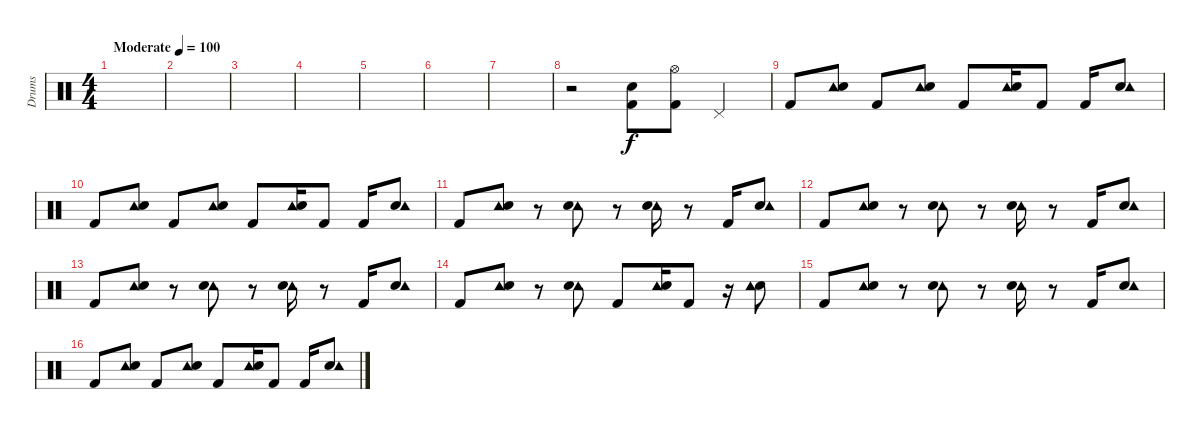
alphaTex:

\track ("Drums" "Drums") {instrument percussion}
\staff {score}
\articulation defaults
\ts (4 4)
\tempo (100 "Moderate")
\clef neutral
\ks c
|
|
|
|
|
|
|
r.2 ("Kick (hit) 2" "Electric Snare (hit)").8 ("Kick (hit) 2" "Hi-Hat (open)").8 "Pedal Hi-Hat (hit)".4 |
"Kick (hit) 2".8 ("Tambourine (hit)" "Electric Snare (hit)").8 "Kick (hit) 2".8 ("Tambourine (hit)" "Electric Snare (hit)").8 "Kick (hit) 2".8 ("Tambourine (hit)" "Electric Snare (hit)").16 "Kick (hit) 2".8 "Kick (hit) 2".16 ("Electric Snare (hit)" "Tambourine (hit)").8 |
"Kick (hit) 2".8 ("Tambourine (hit)" "Electric Snare (hit)").8 "Kick (hit) 2".8 ("Tambourine (hit)" "Electric Snare (hit)").8 "Kick (hit) 2".8 ("Tambourine (hit)" "Electric Snare (hit)").16 "Kick (hit) 2".8 "Kick (hit) 2".16 ("Electric Snare (hit)" "Tambourine (hit)").8 |
"Kick (hit) 2".8 ("Tambourine (hit)" "Electric Snare (hit)").8 r.8 ("Tambourine (hit)" "Electric Snare (hit)").8 r.8 ("Tambourine (hit)" "Electric Snare (hit)").16 r.8 "Kick (hit) 2".16 ("Electric Snare (hit)" "Tambourine (hit)").8 |
"Kick (hit) 2".8 ("Tambourine (hit)" "Electric Snare (hit)").8 r.8 ("Tambourine (hit)" "Electric Snare (hit)").8 r.8 ("Tambourine (hit)" "Electric Snare (hit)").16 r.8 "Kick (hit) 2".16 ("Electric Snare (hit)" "Tambourine (hit)").8 |
"Kick (hit) 2".8 ("Tambourine (hit)" "Electric Snare (hit)").8 r.8 ("Tambourine (hit)" "Electric Snare (hit)").8 r.8 ("Tambourine (hit)" "Electric Snare (hit)").16 r.8 "Kick (hit) 2".16 ("Electric Snare (hit)" "Tambourine (hit)").8 |
"Kick (hit) 2".8 ("Tambourine (hit)" "Electric Snare (hit)").8 r.8 ("Tambourine (hit)" "Electric Snare (hit)").8 "Kick (hit) 2".8 ("Tambourine (hit)" "Electric Snare (hit)").16 "Kick (hit) 2".8 r.16 ("Electric Snare (hit)" "Tambourine (hit)").8 |
"Kick (hit) 2".8 ("Tambourine (hit)" "Electric Snare (hit)").8 r.8 ("Tambourine (hit)" "Electric Snare (hit)").8 r.8 ("Tambourine (hit)" "Electric Snare (hit)").16 r.8 "Kick (hit) 2".16 ("Electric Snare (hit)" "Tambourine (hit)").8 |
"Kick (hit) 2".8 ("Tambourine (hit)" "Electric Snare (hit)").8 "Kick (hit) 2".8 ("Tambourine (hit)" "Electric Snare (hit)").8 "Kick (hit) 2".8 ("Tambourine (hit)" "Electric Snare (hit)").16 "Kick (hit) 2".8 "Kick (hit) 2".16 ("Electric Snare (hit)" "Tambourine (hit)").8
